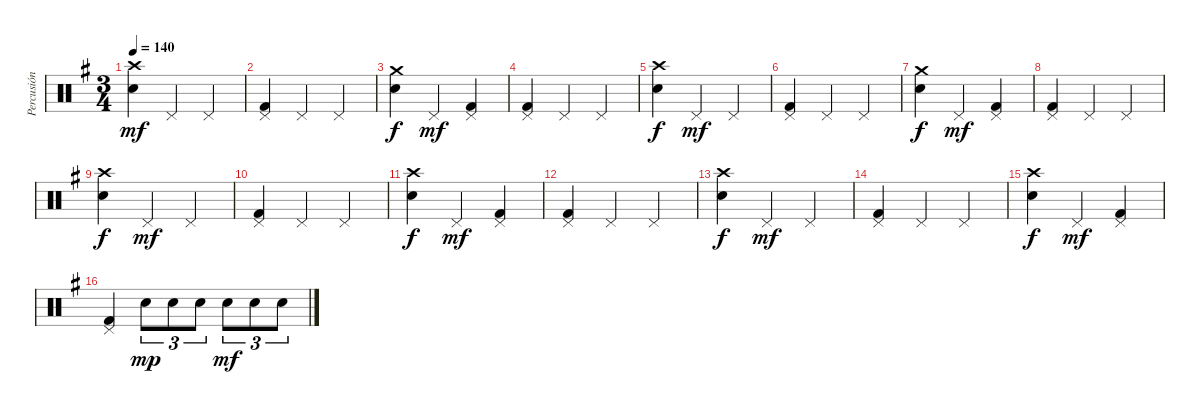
\track ("Percusión" "Percusión") {instrument percussion}
\staff {score}
\articulation defaults
\ts (3 4)
\tempo 140
\clef neutral
\ks g
("Crash high (hit)" "Snare (hit) 2").4{dy mf} "Pedal Hi-Hat (hit)".4 "Pedal Hi-Hat (hit)".4 |
("Pedal Hi-Hat (hit)" "Kick (hit) 2").4 "Pedal Hi-Hat (hit)".4 "Pedal Hi-Hat (hit)".4 |
("Crash medium (hit)" "Snare (hit) 2").4{dy f} "Pedal Hi-Hat (hit)".4{dy mf} ("Pedal Hi-Hat (hit)" "Kick (hit) 2").4 |
("Pedal Hi-Hat (hit)" "Kick (hit) 2").4 "Pedal Hi-Hat (hit)".4 "Pedal Hi-Hat (hit)".4 |
("Crash high (hit)" "Snare (hit) 2").4{dy f} "Pedal Hi-Hat (hit)".4{dy mf} "Pedal Hi-Hat (hit)".4 |
("Pedal Hi-Hat (hit)" "Kick (hit) 2").4 "Pedal Hi-Hat (hit)".4 "Pedal Hi-Hat (hit)".4 |
("Crash medium (hit)" "Snare (hit) 2").4{dy f} "Pedal Hi-Hat (hit)".4{dy mf} ("Pedal Hi-Hat (hit)" "Kick (hit) 2").4 |
("Pedal Hi-Hat (hit)" "Kick (hit) 2").4 "Pedal Hi-Hat (hit)".4 "Pedal Hi-Hat (hit)".4 |
("Crash high (hit)" "Snare (hit) 2").4{dy f} "Pedal Hi-Hat (hit)".4{dy mf} "Pedal Hi-Hat (hit)".4 |
("Pedal Hi-Hat (hit)" "Kick (hit) 2").4 "Pedal Hi-Hat (hit)".4 "Pedal Hi-Hat (hit)".4 |
("Crash high (hit)" "Snare (hit) 2").4{dy f} "Pedal Hi-Hat (hit)".4{dy mf} ("Pedal Hi-Hat (hit)" "Kick (hit) 2").4 |
("Pedal Hi-Hat (hit)" "Kick (hit) 2").4 "Pedal Hi-Hat (hit)".4 "Pedal Hi-Hat (hit)".4 |
("Crash high (hit)" "Snare (hit) 2").4{dy f} "Pedal Hi-Hat (hit)".4{dy mf} "Pedal Hi-Hat (hit)".4 |
("Pedal Hi-Hat (hit)" "Kick (hit) 2").4 "Pedal Hi-Hat (hit)".4 "Pedal Hi-Hat (hit)".4 |
("Crash high (hit)" "Snare (hit) 2").4{dy f} "Pedal Hi-Hat (hit)".4{dy mf} ("Pedal Hi-Hat (hit)" "Kick (hit) 2").4 |
("Pedal Hi-Hat (hit)" "Kick (hit) 2").4 "Snare (hit) 2".8{tu (3 2) dy mp} "Snare (hit) 2".8{tu (3 2)} "Snare (hit) 2".8{tu (3 2)} "Snare (hit) 2".8{tu (3 2) dy mf} "Snare (hit) 2".8{tu (3 2)} "Snare (hit) 2".8{tu (3 2)}
